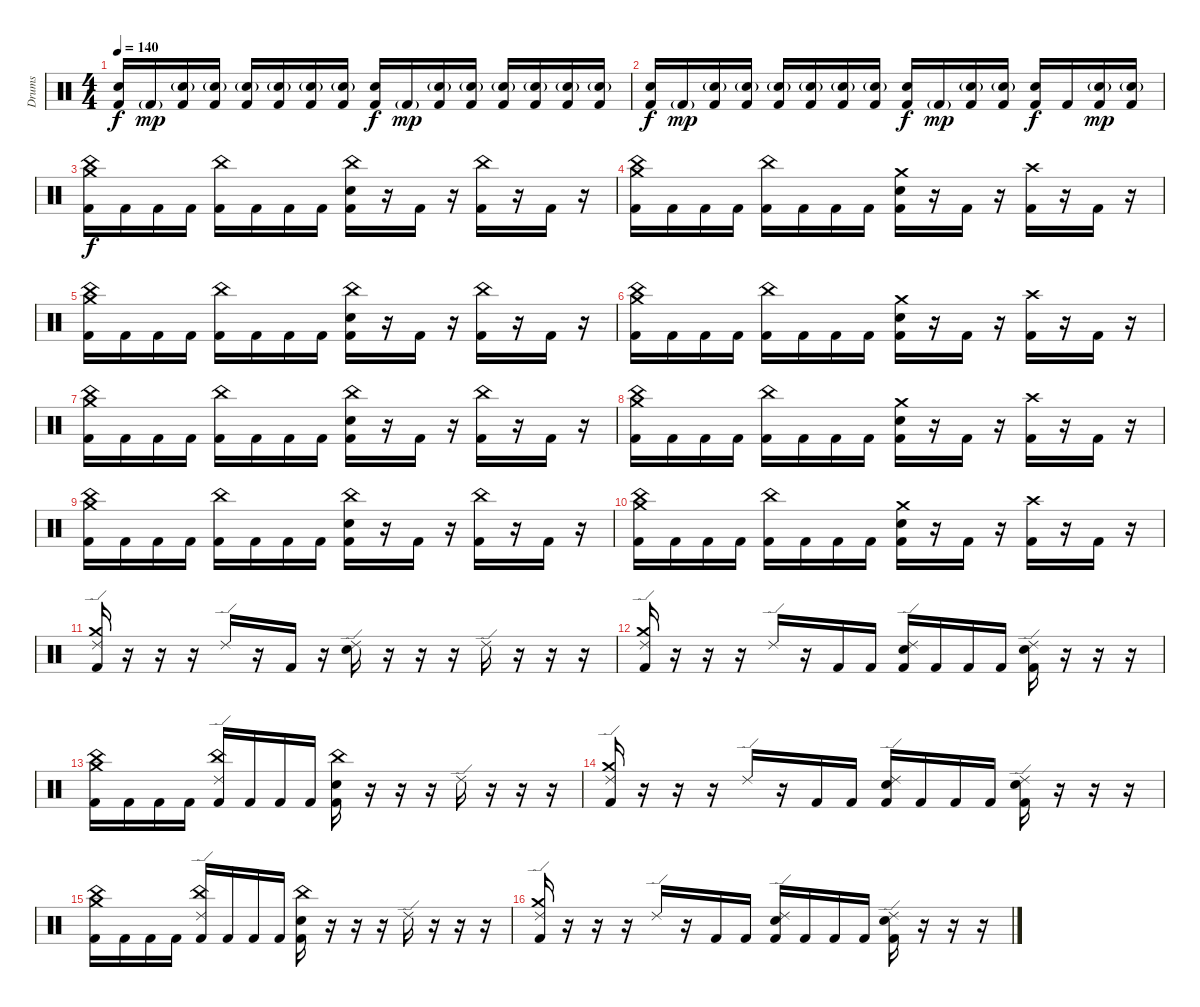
\track ("Drums" "Drums") {instrument percussion}
\staff {score}
\articulation defaults
\ts (4 4)
\tempo 140
\clef neutral
\ks c
("Electric Snare (hit)" "Kick (hit) 2").16{dy f} "Kick (hit) 2"{g}.16{dy mp} ("Electric Snare (hit)"{g} "Kick (hit) 2").16 ("Electric Snare (hit)"{g} "Kick (hit) 2").16 ("Electric Snare (hit)"{g} "Kick (hit) 2").16 ("Electric Snare (hit)"{g} "Kick (hit) 2").16 ("Electric Snare (hit)"{g} "Kick (hit) 2").16 ("Electric Snare (hit)"{g} "Kick (hit) 2").16 ("Electric Snare (hit)" "Kick (hit) 2").16{dy f} "Kick (hit) 2"{g}.16{dy mp} ("Electric Snare (hit)"{g} "Kick (hit) 2").16 ("Electric Snare (hit)"{g} "Kick (hit) 2").16 ("Electric Snare (hit)"{g} "Kick (hit) 2").16 ("Electric Snare (hit)"{g} "Kick (hit) 2").16 ("Electric Snare (hit)"{g} "Kick (hit) 2").16 ("Electric Snare (hit)"{g} "Kick (hit) 2").16 |
("Electric Snare (hit)" "Kick (hit) 2").16{dy f} "Kick (hit) 2"{g}.16{dy mp} ("Electric Snare (hit)"{g} "Kick (hit) 2").16 ("Electric Snare (hit)"{g} "Kick (hit) 2").16 ("Electric Snare (hit)"{g} "Kick (hit) 2").16 ("Electric Snare (hit)"{g} "Kick (hit) 2").16 ("Electric Snare (hit)"{g} "Kick (hit) 2").16 ("Electric Snare (hit)"{g} "Kick (hit) 2").16 ("Electric Snare (hit)" "Kick (hit) 2").16{dy f} "Kick (hit) 2"{g}.16{dy mp} ("Electric Snare (hit)"{g} "Kick (hit) 2").16 ("Electric Snare (hit)"{g} "Kick (hit) 2").16 ("Electric Snare (hit)" "Kick (hit) 2").16{dy f} "Kick (hit) 2".16 ("Electric Snare (hit)"{g} "Kick (hit) 2").16{dy mp} ("Electric Snare (hit)"{g} "Kick (hit) 2").16 |
("China (hit)" "Crash medium (hit)" "Kick (hit) 2").16{dy f} "Kick (hit) 2".16 "Kick (hit) 2".16 "Kick (hit) 2".16 ("China (hit)" "Kick (hit) 2").16 "Kick (hit) 2".16 "Kick (hit) 2".16 "Kick (hit) 2".16 ("China (hit)" "Electric Snare (hit)" "Kick (hit) 2").16 r.16 "Kick (hit) 2".16 r.16 ("China (hit)" "Kick (hit) 2").16 r.16 "Kick (hit) 2".16 r.16 |
("China (hit)" "Crash medium (hit)" "Kick (hit) 2").16 "Kick (hit) 2".16 "Kick (hit) 2".16 "Kick (hit) 2".16 ("China (hit)" "Kick (hit) 2").16 "Kick (hit) 2".16 "Kick (hit) 2".16 "Kick (hit) 2".16 ("Crash medium (hit)" "Electric Snare (hit)" "Kick (hit) 2").16 r.16 "Kick (hit) 2".16 r.16 ("Crash high (hit)" "Kick (hit) 2").16 r.16 "Kick (hit) 2".16 r.16 |
("China (hit)" "Crash medium (hit)" "Kick (hit) 2").16 "Kick (hit) 2".16 "Kick (hit) 2".16 "Kick (hit) 2".16 ("China (hit)" "Kick (hit) 2").16 "Kick (hit) 2".16 "Kick (hit) 2".16 "Kick (hit) 2".16 ("China (hit)" "Electric Snare (hit)" "Kick (hit) 2").16 r.16 "Kick (hit) 2".16 r.16 ("China (hit)" "Kick (hit) 2").16 r.16 "Kick (hit) 2".16 r.16 |
("China (hit)" "Crash medium (hit)" "Kick (hit) 2").16 "Kick (hit) 2".16 "Kick (hit) 2".16 "Kick (hit) 2".16 ("China (hit)" "Kick (hit) 2").16 "Kick (hit) 2".16 "Kick (hit) 2".16 "Kick (hit) 2".16 ("Crash medium (hit)" "Electric Snare (hit)" "Kick (hit) 2").16 r.16 "Kick (hit) 2".16 r.16 ("Crash high (hit)" "Kick (hit) 2").16 r.16 "Kick (hit) 2".16 r.16 |
("China (hit)" "Crash medium (hit)" "Kick (hit) 2").16 "Kick (hit) 2".16 "Kick (hit) 2".16 "Kick (hit) 2".16 ("China (hit)" "Kick (hit) 2").16 "Kick (hit) 2".16 "Kick (hit) 2".16 "Kick (hit) 2".16 ("China (hit)" "Electric Snare (hit)" "Kick (hit) 2").16 r.16 "Kick (hit) 2".16 r.16 ("China (hit)" "Kick (hit) 2").16 r.16 "Kick (hit) 2".16 r.16 |
("China (hit)" "Crash medium (hit)" "Kick (hit) 2").16 "Kick (hit) 2".16 "Kick (hit) 2".16 "Kick (hit) 2".16 ("China (hit)" "Kick (hit) 2").16 "Kick (hit) 2".16 "Kick (hit) 2".16 "Kick (hit) 2".16 ("Crash medium (hit)" "Electric Snare (hit)" "Kick (hit) 2").16 r.16 "Kick (hit) 2".16 r.16 ("Crash high (hit)" "Kick (hit) 2").16 r.16 "Kick (hit) 2".16 r.16 |
("China (hit)" "Crash medium (hit)" "Kick (hit) 2").16 "Kick (hit) 2".16 "Kick (hit) 2".16 "Kick (hit) 2".16 ("China (hit)" "Kick (hit) 2").16 "Kick (hit) 2".16 "Kick (hit) 2".16 "Kick (hit) 2".16 ("China (hit)" "Electric Snare (hit)" "Kick (hit) 2").16 r.16 "Kick (hit) 2".16 r.16 ("China (hit)" "Kick (hit) 2").16 r.16 "Kick (hit) 2".16 r.16 |
("China (hit)" "Crash medium (hit)" "Kick (hit) 2").16 "Kick (hit) 2".16 "Kick (hit) 2".16 "Kick (hit) 2".16 ("China (hit)" "Kick (hit) 2").16 "Kick (hit) 2".16 "Kick (hit) 2".16 "Kick (hit) 2".16 ("Crash medium (hit)" "Electric Snare (hit)" "Kick (hit) 2").16 r.16 "Kick (hit) 2".16 r.16 ("Crash high (hit)" "Kick (hit) 2").16 r.16 "Kick (hit) 2".16 r.16 |
("Crash medium (hit)" "Ride (edge) 2" "Kick (hit) 2").16 r.16 r.16 r.16 "Ride (edge) 2".16 r.16 "Kick (hit) 2".16 r.16 ("Ride (edge) 2" "Electric Snare (hit)").16 r.16 r.16 r.16 "Ride (edge) 2".16 r.16 r.16 r.16 |
("Crash medium (hit)" "Ride (edge) 2" "Kick (hit) 2").16 r.16 r.16 r.16 "Ride (edge) 2".16 r.16 "Kick (hit) 2".16 "Kick (hit) 2".16 ("Ride (edge) 2" "Electric Snare (hit)" "Kick (hit) 2").16 "Kick (hit) 2".16 "Kick (hit) 2".16 "Kick (hit) 2".16 ("Ride (edge) 2" "Electric Snare (hit)" "Kick (hit) 2").16 r.16 r.16 r.16 |
("China (hit)" "Crash medium (hit)" "Kick (hit) 2").16 "Kick (hit) 2".16 "Kick (hit) 2".16 "Kick (hit) 2".16 ("China (hit)" "Ride (edge) 2" "Kick (hit) 2").16 "Kick (hit) 2".16 "Kick (hit) 2".16 "Kick (hit) 2".16 ("China (hit)" "Electric Snare (hit)" "Kick (hit) 2").16 r.16 r.16 r.16 "Ride (edge) 2".16 r.16 r.16 r.16 |
("Crash medium (hit)" "Ride (edge) 2" "Kick (hit) 2").16 r.16 r.16 r.16 "Ride (edge) 2".16 r.16 "Kick (hit) 2".16 "Kick (hit) 2".16 ("Ride (edge) 2" "Electric Snare (hit)" "Kick (hit) 2").16 "Kick (hit) 2".16 "Kick (hit) 2".16 "Kick (hit) 2".16 ("Ride (edge) 2" "Electric Snare (hit)" "Kick (hit) 2").16 r.16 r.16 r.16 |
("China (hit)" "Crash medium (hit)" "Kick (hit) 2").16 "Kick (hit) 2".16 "Kick (hit) 2".16 "Kick (hit) 2".16 ("China (hit)" "Ride (edge) 2" "Kick (hit) 2").16 "Kick (hit) 2".16 "Kick (hit) 2".16 "Kick (hit) 2".16 ("China (hit)" "Electric Snare (hit)" "Kick (hit) 2").16 r.16 r.16 r.16 "Ride (edge) 2".16 r.16 r.16 r.16 |
("Crash medium (hit)" "Ride (edge) 2" "Kick (hit) 2").16 r.16 r.16 r.16 "Ride (edge) 2".16 r.16 "Kick (hit) 2".16 "Kick (hit) 2".16 ("Ride (edge) 2" "Electric Snare (hit)" "Kick (hit) 2").16 "Kick (hit) 2".16 "Kick (hit) 2".16 "Kick (hit) 2".16 ("Ride (edge) 2" "Electric Snare (hit)" "Kick (hit) 2").16 r.16 r.16 r.16
